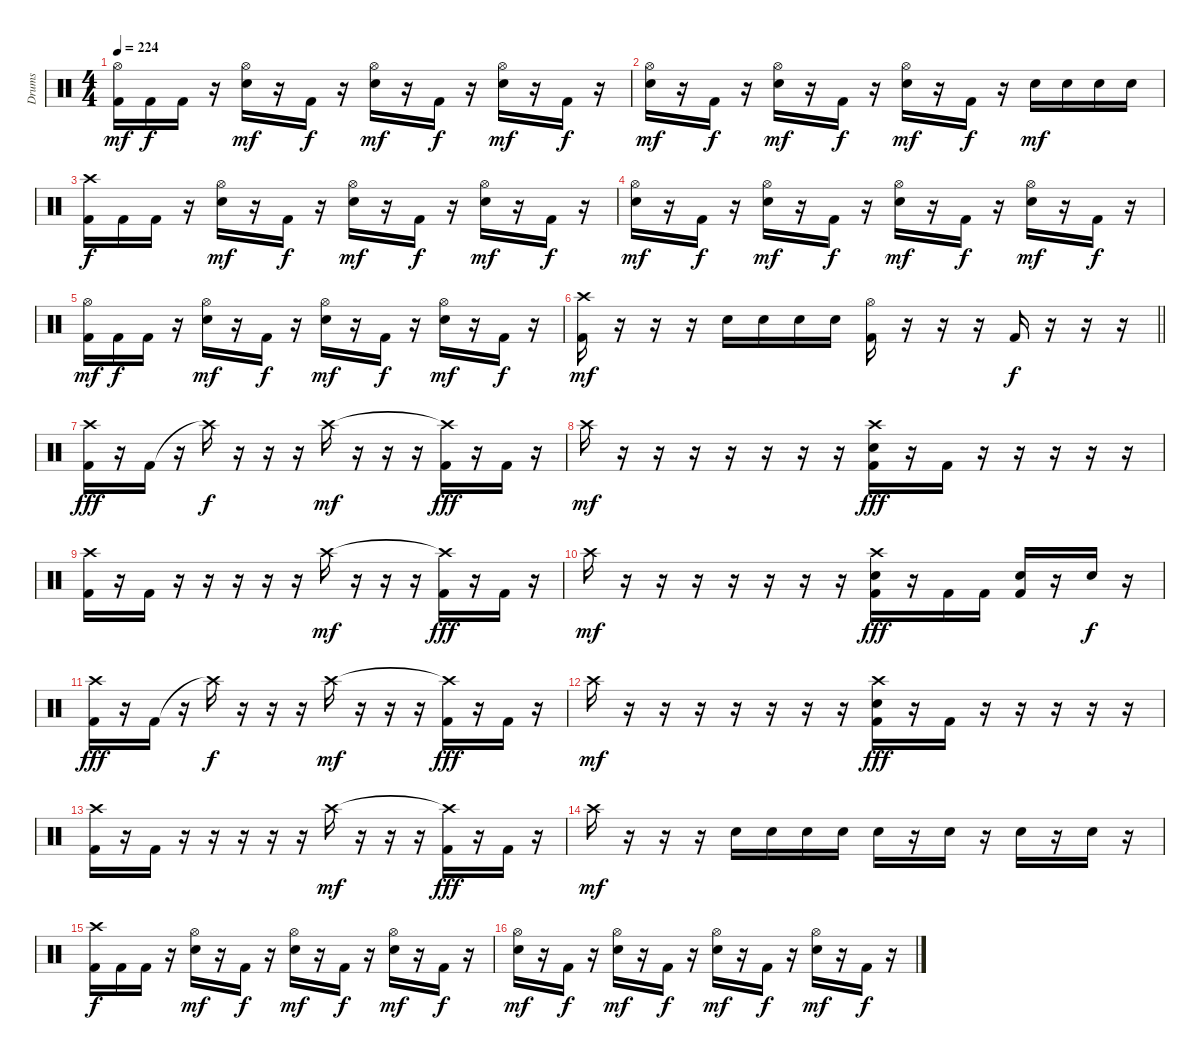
\track ("Drums" "Drums") {instrument percussion}
\staff {score}
\articulation defaults
\ts (4 4)
\tempo 224
\clef neutral
\ks c
("Hi-Hat (open)" "Kick (hit) 2").16{dy mf} "Kick (hit) 2".16{dy f} "Kick (hit) 2".16 r.16 ("Hi-Hat (open)" "Snare (hit) 2").16{dy mf} r.16 "Kick (hit) 2".16{dy f} r.16 ("Hi-Hat (open)" "Snare (hit) 2").16{dy mf} r.16 "Kick (hit) 2".16{dy f} r.16 ("Hi-Hat (open)" "Snare (hit) 2").16{dy mf} r.16 "Kick (hit) 2".16{dy f} r.16 |
("Hi-Hat (open)" "Snare (hit) 2").16{dy mf} r.16 "Kick (hit) 2".16{dy f} r.16 ("Hi-Hat (open)" "Snare (hit) 2").16{dy mf} r.16 "Kick (hit) 2".16{dy f} r.16 ("Hi-Hat (open)" "Snare (hit) 2").16{dy mf} r.16 "Kick (hit) 2".16{dy f} r.16 "Snare (hit) 2".16{dy mf} "Snare (hit) 2".16 "Snare (hit) 2".16 "Snare (hit) 2".16 |
("Crash high (hit)" "Kick (hit) 2").16{dy f} "Kick (hit) 2".16 "Kick (hit) 2".16 r.16 ("Hi-Hat (open)" "Snare (hit) 2").16{dy mf} r.16 "Kick (hit) 2".16{dy f} r.16 ("Hi-Hat (open)" "Snare (hit) 2").16{dy mf} r.16 "Kick (hit) 2".16{dy f} r.16 ("Hi-Hat (open)" "Snare (hit) 2").16{dy mf} r.16 "Kick (hit) 2".16{dy f} r.16 |
("Hi-Hat (open)" "Snare (hit) 2").16{dy mf} r.16 "Kick (hit) 2".16{dy f} r.16 ("Hi-Hat (open)" "Snare (hit) 2").16{dy mf} r.16 "Kick (hit) 2".16{dy f} r.16 ("Hi-Hat (open)" "Snare (hit) 2").16{dy mf} r.16 "Kick (hit) 2".16{dy f} r.16 ("Hi-Hat (open)" "Snare (hit) 2").16{dy mf} r.16 "Kick (hit) 2".16{dy f} r.16 |
("Hi-Hat (open)" "Kick (hit) 2").16{dy mf} "Kick (hit) 2".16{dy f} "Kick (hit) 2".16 r.16 ("Hi-Hat (open)" "Snare (hit) 2").16{dy mf} r.16 "Kick (hit) 2".16{dy f} r.16 ("Hi-Hat (open)" "Snare (hit) 2").16{dy mf} r.16 "Kick (hit) 2".16{dy f} r.16 ("Hi-Hat (open)" "Snare (hit) 2").16{dy mf} r.16 "Kick (hit) 2".16{dy f} r.16 |
\barLineRight lightlight
("Crash high (hit)" "Kick (hit) 2").16{dy mf} r.16 r.16 r.16 "Snare (hit) 2".16 "Snare (hit) 2".16 "Snare (hit) 2".16 "Snare (hit) 2".16 ("Hi-Hat (open)" "Kick (hit) 2").16 r.16 r.16 r.16 "Kick (hit) 2".16{dy f} r.16 r.16 r.16 |
("Crash high (hit)" "Kick (hit) 2").16{dy fff} r.16 "Kick (hit) 2".16 r.16 "Crash high (hit)"{t}.16{dy f} r.16 r.16 r.16 "Crash high (hit)".16{dy mf} r.16 r.16 r.16 ("Crash high (hit)"{t} "Kick (hit) 2").16{dy fff} r.16 "Kick (hit) 2".16 r.16 |
"Crash high (hit)".16{dy mf} r.16 r.16 r.16 r.16 r.16 r.16 r.16 ("Crash high (hit)" "Snare (hit) 2" "Kick (hit) 2").16{dy fff} r.16 "Kick (hit) 2".16 r.16 r.16 r.16 r.16 r.16 |
("Crash high (hit)" "Kick (hit) 2").16 r.16 "Kick (hit) 2".16 r.16 r.16 r.16 r.16 r.16 "Crash high (hit)".16{dy mf} r.16 r.16 r.16 ("Crash high (hit)"{t} "Kick (hit) 2").16{dy fff} r.16 "Kick (hit) 2".16 r.16 |
"Crash high (hit)".16{dy mf} r.16 r.16 r.16 r.16 r.16 r.16 r.16 ("Crash high (hit)" "Snare (hit) 2" "Kick (hit) 2").16{dy fff} r.16 "Kick (hit) 2".16 "Kick (hit) 2".16 ("Snare (hit) 2" "Kick (hit) 2").16 r.16 "Snare (hit) 2".16{dy f} r.16 |
("Crash high (hit)" "Kick (hit) 2").16{dy fff} r.16 "Kick (hit) 2".16 r.16 "Crash high (hit)"{t}.16{dy f} r.16 r.16 r.16 "Crash high (hit)".16{dy mf} r.16 r.16 r.16 ("Crash high (hit)"{t} "Kick (hit) 2").16{dy fff} r.16 "Kick (hit) 2".16 r.16 |
"Crash high (hit)".16{dy mf} r.16 r.16 r.16 r.16 r.16 r.16 r.16 ("Crash high (hit)" "Snare (hit) 2" "Kick (hit) 2").16{dy fff} r.16 "Kick (hit) 2".16 r.16 r.16 r.16 r.16 r.16 |
("Crash high (hit)" "Kick (hit) 2").16 r.16 "Kick (hit) 2".16 r.16 r.16 r.16 r.16 r.16 "Crash high (hit)".16{dy mf} r.16 r.16 r.16 ("Crash high (hit)"{t} "Kick (hit) 2").16{dy fff} r.16 "Kick (hit) 2".16 r.16 |
"Crash high (hit)".16{dy mf} r.16 r.16 r.16 "Snare (hit) 2".16 "Snare (hit) 2".16 "Snare (hit) 2".16 "Snare (hit) 2".16 "Snare (hit) 2".16 r.16 "Snare (hit) 2".16 r.16 "Snare (hit) 2".16 r.16 "Snare (hit) 2".16 r.16 |
("Crash high (hit)" "Kick (hit) 2").16{dy f} "Kick (hit) 2".16 "Kick (hit) 2".16 r.16 ("Hi-Hat (open)" "Snare (hit) 2").16{dy mf} r.16 "Kick (hit) 2".16{dy f} r.16 ("Hi-Hat (open)" "Snare (hit) 2").16{dy mf} r.16 "Kick (hit) 2".16{dy f} r.16 ("Hi-Hat (open)" "Snare (hit) 2").16{dy mf} r.16 "Kick (hit) 2".16{dy f} r.16 |
("Hi-Hat (open)" "Snare (hit) 2").16{dy mf} r.16 "Kick (hit) 2".16{dy f} r.16 ("Hi-Hat (open)" "Snare (hit) 2").16{dy mf} r.16 "Kick (hit) 2".16{dy f} r.16 ("Hi-Hat (open)" "Snare (hit) 2").16{dy mf} r.16 "Kick (hit) 2".16{dy f} r.16 ("Hi-Hat (open)" "Snare (hit) 2").16{dy mf} r.16 "Kick (hit) 2".16{dy f} r.16
